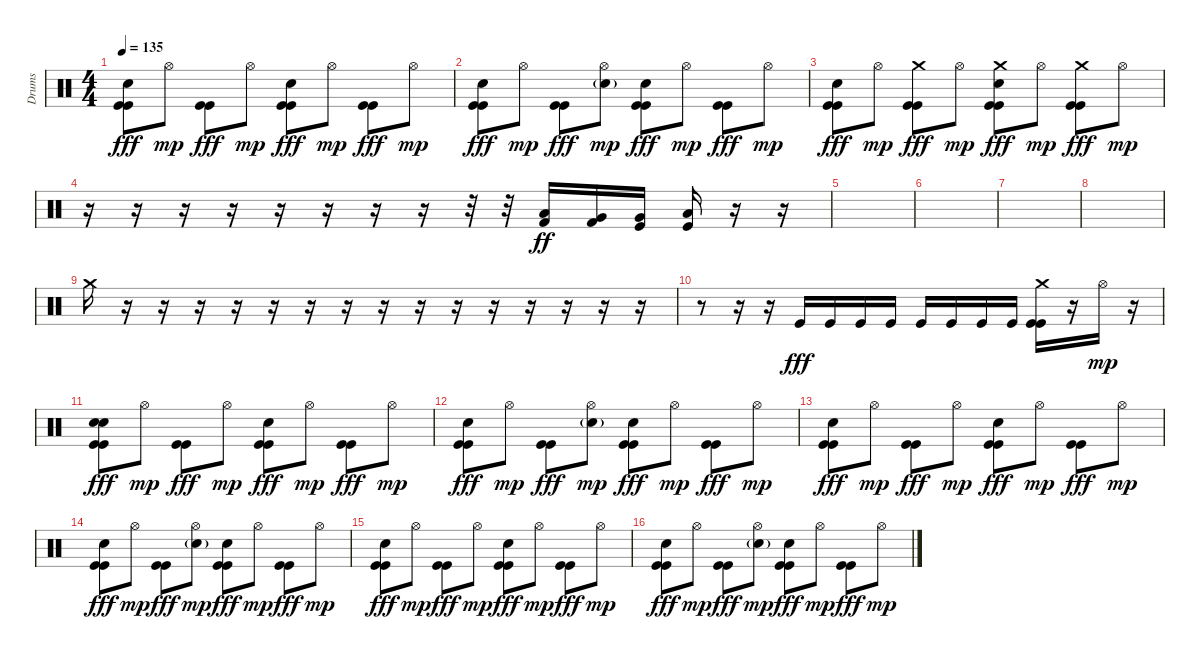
\track ("Drums" "Drums") {instrument percussion bank 24}
\staff
\articulation defaults
\ts (4 4)
\tempo 135
\clef neutral
\ks c
("Kick (hit)" "Kick (hit)" "Snare (hit) 2").8{dy fff} "Hi-Hat (open)".8{dy mp} ("Kick (hit)" "Kick (hit)").8{dy fff} "Hi-Hat (open)".8{dy mp} ("Kick (hit)" "Kick (hit)" "Snare (hit) 2").8{dy fff} "Hi-Hat (open)".8{dy mp} ("Kick (hit)" "Kick (hit)").8{dy fff} "Hi-Hat (open)".8{dy mp} |
("Kick (hit)" "Kick (hit)" "Snare (hit) 2").8{dy fff} "Hi-Hat (open)".8{dy mp} ("Kick (hit)" "Kick (hit)").8{dy fff} ("Hi-Hat (open)" "Snare (hit) 2"{g}).8{dy mp} ("Kick (hit)" "Kick (hit)" "Snare (hit) 2").8{dy fff} "Hi-Hat (open)".8{dy mp} ("Kick (hit)" "Kick (hit)").8{dy fff} "Hi-Hat (open)".8{dy mp} |
("Kick (hit)" "Kick (hit)" "Snare (hit) 2").8{dy fff} "Hi-Hat (open)".8{dy mp} ("Crash medium (hit)" "Kick (hit)" "Kick (hit)").8{dy fff} "Hi-Hat (open)".8{dy mp} ("Crash medium (hit)" "Kick (hit)" "Kick (hit)" "Snare (hit) 2").8{dy fff} "Hi-Hat (open)".8{dy mp} ("Crash medium (hit)" "Kick (hit)" "Kick (hit)").8{dy fff} "Hi-Hat (open)".8{dy mp} |
r.16 r.16 r.16 r.16 r.16 r.16 r.16 r.16 r.32 r.32 ("Low Tom (hit)" "Kick (hit) 2").16{dy ff} ("Very Low Tom (hit)" "Kick (hit) 2").16 ("Very Low Tom (hit)" "Kick (hit)").16 ("Low Floor Tom (hit)" "Kick (hit)").16 r.16 r.16 |
|
|
|
|
"Crash medium (hit)".16 r.16 r.16 r.16 r.16 r.16 r.16 r.16 r.16 r.16 r.16 r.16 r.16 r.16 r.16 r.16 |
r.8 r.16 r.16 "Kick (hit)".16{dy fff} "Kick (hit)".16 "Kick (hit)".16 "Kick (hit)".16 "Kick (hit)".16 "Kick (hit)".16 "Kick (hit)".16 "Kick (hit)".16 ("Crash medium (hit)" "Kick (hit)" "Kick (hit)").16 r.16 "Hi-Hat (open)".16{dy mp} r.16 |
("Snare (hit)" "Kick (hit)" "Kick (hit)" "Snare (hit) 2").8{dy fff} "Hi-Hat (open)".8{dy mp} ("Kick (hit)" "Kick (hit)").8{dy fff} "Hi-Hat (open)".8{dy mp} ("Kick (hit)" "Kick (hit)" "Snare (hit) 2").8{dy fff} "Hi-Hat (open)".8{dy mp} ("Kick (hit)" "Kick (hit)").8{dy fff} "Hi-Hat (open)".8{dy mp} |
("Kick (hit)" "Kick (hit)" "Snare (hit) 2").8{dy fff} "Hi-Hat (open)".8{dy mp} ("Kick (hit)" "Kick (hit)").8{dy fff} ("Hi-Hat (open)" "Snare (hit) 2"{g}).8{dy mp} ("Kick (hit)" "Kick (hit)" "Snare (hit) 2").8{dy fff} "Hi-Hat (open)".8{dy mp} ("Kick (hit)" "Kick (hit)").8{dy fff} "Hi-Hat (open)".8{dy mp} |
("Kick (hit)" "Kick (hit)" "Snare (hit) 2").8{dy fff} "Hi-Hat (open)".8{dy mp} ("Kick (hit)" "Kick (hit)").8{dy fff} "Hi-Hat (open)".8{dy mp} ("Kick (hit)" "Kick (hit)" "Snare (hit) 2").8{dy fff} "Hi-Hat (open)".8{dy mp} ("Kick (hit)" "Kick (hit)").8{dy fff} "Hi-Hat (open)".8{dy mp} |
("Kick (hit)" "Kick (hit)" "Snare (hit) 2").8{dy fff} "Hi-Hat (open)".8{dy mp} ("Kick (hit)" "Kick (hit)").8{dy fff} ("Hi-Hat (open)" "Snare (hit) 2"{g}).8{dy mp} ("Kick (hit)" "Kick (hit)" "Snare (hit) 2").8{dy fff} "Hi-Hat (open)".8{dy mp} ("Kick (hit)" "Kick (hit)").8{dy fff} "Hi-Hat (open)".8{dy mp} |
("Kick (hit)" "Kick (hit)" "Snare (hit) 2").8{dy fff} "Hi-Hat (open)".8{dy mp} ("Kick (hit)" "Kick (hit)").8{dy fff} "Hi-Hat (open)".8{dy mp} ("Kick (hit)" "Kick (hit)" "Snare (hit) 2").8{dy fff} "Hi-Hat (open)".8{dy mp} ("Kick (hit)" "Kick (hit)").8{dy fff} "Hi-Hat (open)".8{dy mp} |
("Kick (hit)" "Kick (hit)" "Snare (hit) 2").8{dy fff} "Hi-Hat (open)".8{dy mp} ("Kick (hit)" "Kick (hit)").8{dy fff} ("Hi-Hat (open)" "Snare (hit) 2"{g}).8{dy mp} ("Kick (hit)" "Kick (hit)" "Snare (hit) 2").8{dy fff} "Hi-Hat (open)".8{dy mp} ("Kick (hit)" "Kick (hit)").8{dy fff} "Hi-Hat (open)".8{dy mp}
